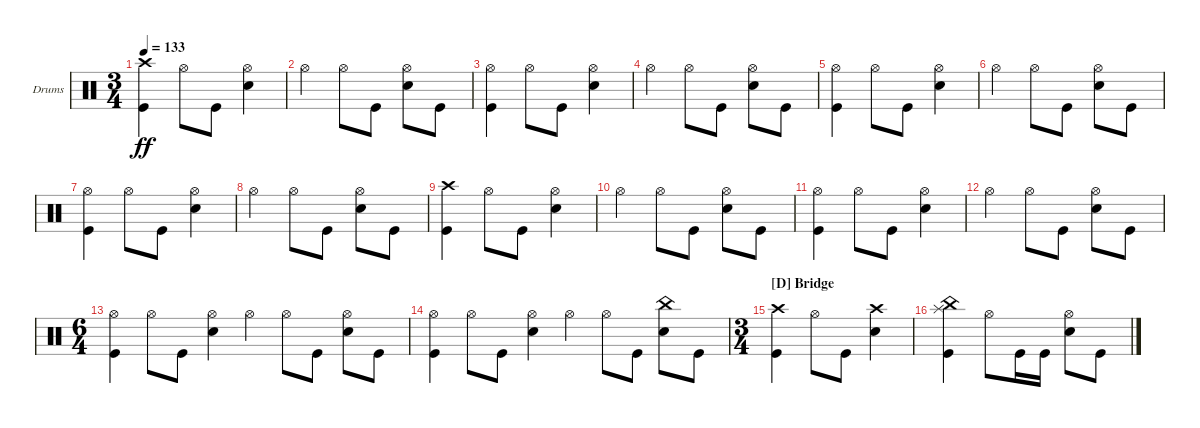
\bracketExtendMode groupsimilarinstruments
\firstSystemTrackNameOrientation horizontal
\otherSystemsTrackNameOrientation horizontal
\track ("Drumkit" "Drums") {instrument percussion}
\staff {score}
\articulation defaults
\ts (3 4)
\tempo 133
\clef neutral
\ks c
("Kick (hit)" "Crash high (hit)").4{dy ff} "Hi-Hat (open)".8 "Kick (hit)".8 ("Snare (hit) 2" "Hi-Hat (open)").4 |
"Hi-Hat (open)".4 "Hi-Hat (open)".8 "Kick (hit)".8 ("Snare (hit) 2" "Hi-Hat (open)").8 "Kick (hit)".8 |
("Kick (hit)" "Hi-Hat (open)").4 "Hi-Hat (open)".8 "Kick (hit)".8 ("Snare (hit) 2" "Hi-Hat (open)").4 |
"Hi-Hat (open)".4 "Hi-Hat (open)".8 "Kick (hit)".8 ("Snare (hit) 2" "Hi-Hat (open)").8 "Kick (hit)".8 |
("Kick (hit)" "Hi-Hat (open)").4 "Hi-Hat (open)".8 "Kick (hit)".8 ("Snare (hit) 2" "Hi-Hat (open)").4 |
"Hi-Hat (open)".4 "Hi-Hat (open)".8 "Kick (hit)".8 ("Snare (hit) 2" "Hi-Hat (open)").8 "Kick (hit)".8 |
("Kick (hit)" "Hi-Hat (open)").4 "Hi-Hat (open)".8 "Kick (hit)".8 ("Snare (hit) 2" "Hi-Hat (open)").4 |
"Hi-Hat (open)".4 "Hi-Hat (open)".8 "Kick (hit)".8 ("Snare (hit) 2" "Hi-Hat (open)").8 "Kick (hit)".8 |
("Kick (hit)" "Crash high (hit)").4 "Hi-Hat (open)".8 "Kick (hit)".8 ("Snare (hit) 2" "Hi-Hat (open)").4 |
"Hi-Hat (open)".4 "Hi-Hat (open)".8 "Kick (hit)".8 ("Snare (hit) 2" "Hi-Hat (open)").8 "Kick (hit)".8 |
("Kick (hit)" "Hi-Hat (open)").4 "Hi-Hat (open)".8 "Kick (hit)".8 ("Snare (hit) 2" "Hi-Hat (open)").4 |
"Hi-Hat (open)".4 "Hi-Hat (open)".8 "Kick (hit)".8 ("Snare (hit) 2" "Hi-Hat (open)").8 "Kick (hit)".8 |
\ts (6 4)
("Kick (hit)" "Hi-Hat (open)").4 "Hi-Hat (open)".8 "Kick (hit)".8 ("Snare (hit) 2" "Hi-Hat (open)").4 "Hi-Hat (open)".4 "Hi-Hat (open)".8 "Kick (hit)".8 ("Snare (hit) 2" "Hi-Hat (open)").8 "Kick (hit)".8 |
("Kick (hit)" "Hi-Hat (open)").4 "Hi-Hat (open)".8 "Kick (hit)".8 ("Snare (hit) 2" "Hi-Hat (open)").4 "Hi-Hat (open)".4 "Hi-Hat (open)".8 "Kick (hit)".8 ("Snare (hit) 2" "China (hit)").8 "Kick (hit)".8 |
\ts (3 4)
\section ("D" "Bridge")
("Kick (hit)" "Crash high (hit)").4 "Hi-Hat (open)".8 "Kick (hit)".8 ("Snare (hit) 2" "Crash high (hit)").4 |
("China (hit)" "Kick (hit)" "Splash (hit)").4 "Hi-Hat (open)".8 "Kick (hit)".16 "Kick (hit)".16 ("Snare (hit) 2" "Hi-Hat (open)").8 "Kick (hit)".8
